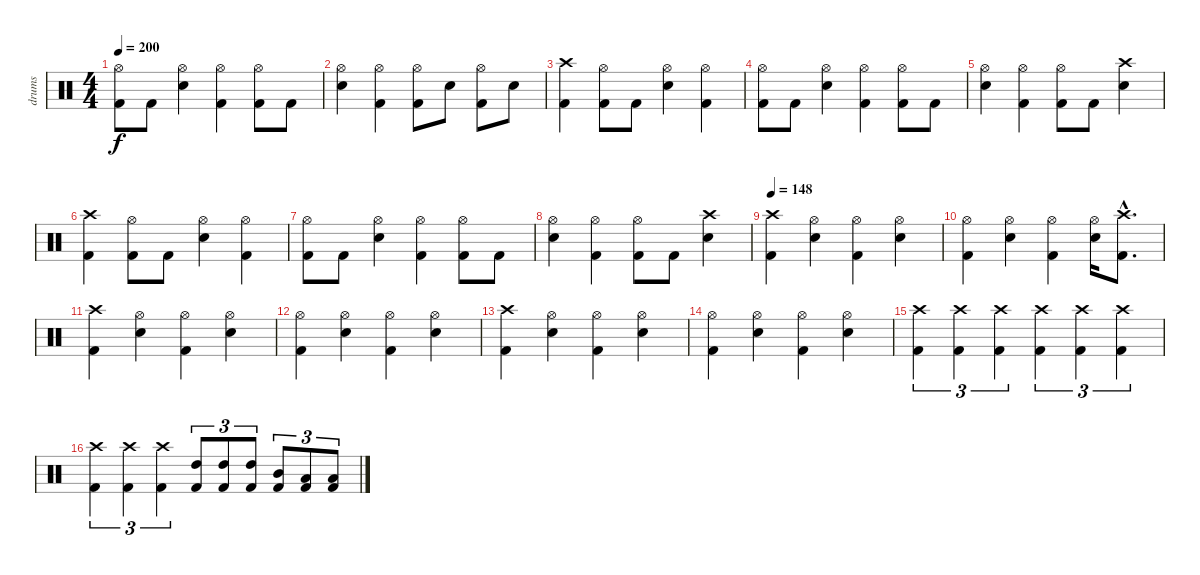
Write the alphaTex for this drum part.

\track ("drums" "drums") {instrument percussion}
\staff {score}
\articulation defaults
\ts (4 4)
\tempo 200
\clef neutral
\ks c
("Kick (hit) 2" "Hi-Hat (open)").8{dy f} "Kick (hit) 2".8 ("Snare (hit) 2" "Hi-Hat (open)").4 ("Kick (hit) 2" "Hi-Hat (open)").4 ("Kick (hit) 2" "Hi-Hat (open)").8 "Kick (hit) 2".8 |
("Snare (hit) 2" "Hi-Hat (open)").4 ("Kick (hit) 2" "Hi-Hat (open)").4 ("Kick (hit) 2" "Hi-Hat (open)").8 "Snare (hit) 2".8 ("Kick (hit) 2" "Hi-Hat (open)").8 "Snare (hit) 2".8 |
("Kick (hit) 2" "Crash high (hit)").4 ("Kick (hit) 2" "Hi-Hat (open)").8 "Kick (hit) 2".8 ("Snare (hit) 2" "Hi-Hat (open)").4 ("Kick (hit) 2" "Hi-Hat (open)").4 |
("Kick (hit) 2" "Hi-Hat (open)").8 "Kick (hit) 2".8 ("Snare (hit) 2" "Hi-Hat (open)").4 ("Kick (hit) 2" "Hi-Hat (open)").4 ("Kick (hit) 2" "Hi-Hat (open)").8 "Kick (hit) 2".8 |
("Snare (hit) 2" "Hi-Hat (open)").4 ("Kick (hit) 2" "Hi-Hat (open)").4 ("Kick (hit) 2" "Hi-Hat (open)").8 "Kick (hit) 2".8 ("Snare (hit) 2" "Crash high (hit)").4 |
("Kick (hit) 2" "Crash high (hit)").4 ("Kick (hit) 2" "Hi-Hat (open)").8 "Kick (hit) 2".8 ("Snare (hit) 2" "Hi-Hat (open)").4 ("Kick (hit) 2" "Hi-Hat (open)").4 |
("Kick (hit) 2" "Hi-Hat (open)").8 "Kick (hit) 2".8 ("Snare (hit) 2" "Hi-Hat (open)").4 ("Kick (hit) 2" "Hi-Hat (open)").4 ("Kick (hit) 2" "Hi-Hat (open)").8 "Kick (hit) 2".8 |
("Snare (hit) 2" "Hi-Hat (open)").4 ("Kick (hit) 2" "Hi-Hat (open)").4 ("Kick (hit) 2" "Hi-Hat (open)").8 "Kick (hit) 2".8 ("Snare (hit) 2" "Crash high (hit)").4 |
\tempo 148
("Kick (hit) 2" "Crash high (hit)").4 ("Snare (hit) 2" "Hi-Hat (open)").4 ("Kick (hit) 2" "Hi-Hat (open)").4 ("Snare (hit) 2" "Hi-Hat (open)").4 |
("Kick (hit) 2" "Hi-Hat (open)").4 ("Snare (hit) 2" "Hi-Hat (open)").4 ("Kick (hit) 2" "Hi-Hat (open)").4 ("Snare (hit) 2" "Hi-Hat (open)").16 ("Kick (hit) 2"{hac} "Crash high (hit)"{hac}).8{d} |
("Kick (hit) 2" "Crash high (hit)").4 ("Snare (hit) 2" "Hi-Hat (open)").4 ("Kick (hit) 2" "Hi-Hat (open)").4 ("Snare (hit) 2" "Hi-Hat (open)").4 |
("Kick (hit) 2" "Hi-Hat (open)").4 ("Snare (hit) 2" "Hi-Hat (open)").4 ("Kick (hit) 2" "Hi-Hat (open)").4 ("Snare (hit) 2" "Hi-Hat (open)").4 |
("Kick (hit) 2" "Crash high (hit)").4 ("Snare (hit) 2" "Hi-Hat (open)").4 ("Kick (hit) 2" "Hi-Hat (open)").4 ("Snare (hit) 2" "Hi-Hat (open)").4 |
("Kick (hit) 2" "Hi-Hat (open)").4 ("Snare (hit) 2" "Hi-Hat (open)").4 ("Kick (hit) 2" "Hi-Hat (open)").4 ("Snare (hit) 2" "Hi-Hat (open)").4 |
("Kick (hit) 2" "Crash high (hit)").4{tu (3 2)} ("Kick (hit) 2" "Crash high (hit)").4{tu (3 2)} ("Kick (hit) 2" "Crash high (hit)").4{tu (3 2)} ("Kick (hit) 2" "Crash high (hit)").4{tu (3 2)} ("Kick (hit) 2" "Crash high (hit)").4{tu (3 2)} ("Kick (hit) 2" "Crash high (hit)").4{tu (3 2)} |
("Kick (hit) 2" "Crash high (hit)").4{tu (3 2)} ("Kick (hit) 2" "Crash high (hit)").4{tu (3 2)} ("Kick (hit) 2" "Crash high (hit)").4{tu (3 2)} ("Kick (hit) 2" "High Tom (hit)").8{tu (3 2)} ("Kick (hit) 2" "High Tom (hit)").8{tu (3 2)} ("Kick (hit) 2" "High Tom (hit)").8{tu (3 2)} ("Kick (hit) 2" "Mid Tom (hit)").8{tu (3 2)} ("Kick (hit) 2" "Low Tom (hit)").8{tu (3 2)} ("Kick (hit) 2" "Low Tom (hit)").8{tu (3 2)}
